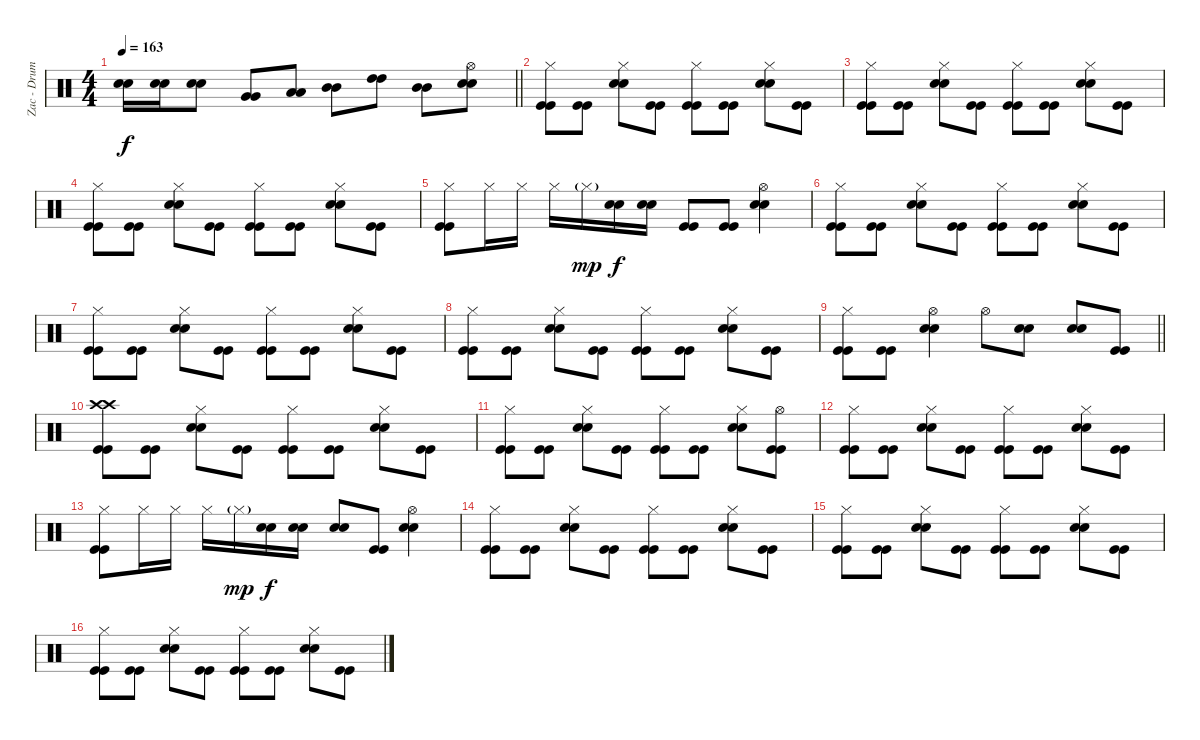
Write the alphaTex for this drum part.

\track ("Zac - Drums" "Zac - Drum") {instrument percussion}
\staff {score}
\articulation defaults
\ts (4 4)
\tempo 163
\clef neutral
\barLineRight lightlight
\ks c
("Electric Snare (hit)" "Electric Snare (hit)").16{dy f} ("Electric Snare (hit)" "Electric Snare (hit)").16 ("Electric Snare (hit)" "Electric Snare (hit)").8 ("Very Low Tom (hit)" "Very Low Tom (hit)").8 ("Low Tom (hit)" "Low Tom (hit)").8 ("Mid Tom (hit)" "Mid Tom (hit)").8 ("High Tom (hit)" "High Tom (hit)").8 ("Mid Tom (hit)" "Mid Tom (hit)").8 ("Hi-Hat (open)" "Electric Snare (hit)" "Electric Snare (hit)").8 |
("Hi-Hat (closed)" "Kick (hit)" "Kick (hit)").8 ("Kick (hit)" "Kick (hit)").8 ("Hi-Hat (closed)" "Electric Snare (hit)" "Electric Snare (hit)").8 ("Kick (hit)" "Kick (hit)").8 ("Hi-Hat (closed)" "Kick (hit)" "Kick (hit)").8 ("Kick (hit)" "Kick (hit)").8 ("Hi-Hat (closed)" "Electric Snare (hit)" "Electric Snare (hit)").8 ("Kick (hit)" "Kick (hit)").8 |
("Hi-Hat (closed)" "Kick (hit)" "Kick (hit)").8 ("Kick (hit)" "Kick (hit)").8 ("Hi-Hat (closed)" "Electric Snare (hit)" "Electric Snare (hit)").8 ("Kick (hit)" "Kick (hit)").8 ("Hi-Hat (closed)" "Kick (hit)" "Kick (hit)").8 ("Kick (hit)" "Kick (hit)").8 ("Hi-Hat (closed)" "Electric Snare (hit)" "Electric Snare (hit)").8 ("Kick (hit)" "Kick (hit)").8 |
("Hi-Hat (closed)" "Kick (hit)" "Kick (hit)").8 ("Kick (hit)" "Kick (hit)").8 ("Hi-Hat (closed)" "Electric Snare (hit)" "Electric Snare (hit)").8 ("Kick (hit)" "Kick (hit)").8 ("Hi-Hat (closed)" "Kick (hit)" "Kick (hit)").8 ("Kick (hit)" "Kick (hit)").8 ("Hi-Hat (closed)" "Electric Snare (hit)" "Electric Snare (hit)").8 ("Kick (hit)" "Kick (hit)").8 |
("Hi-Hat (closed)" "Kick (hit)" "Kick (hit)").8 "Hi-Hat (closed)".16 "Hi-Hat (closed)".16 "Hi-Hat (closed)".16 "Hi-Hat (closed)"{g}.16{dy mp} ("Electric Snare (hit)" "Electric Snare (hit)").16{dy f} ("Electric Snare (hit)" "Electric Snare (hit)").16 ("Kick (hit)" "Kick (hit)").8 ("Kick (hit)" "Kick (hit)").8 ("Hi-Hat (open)" "Electric Snare (hit)" "Electric Snare (hit)").4 |
("Hi-Hat (closed)" "Kick (hit)" "Kick (hit)").8 ("Kick (hit)" "Kick (hit)").8 ("Hi-Hat (closed)" "Electric Snare (hit)" "Electric Snare (hit)").8 ("Kick (hit)" "Kick (hit)").8 ("Hi-Hat (closed)" "Kick (hit)" "Kick (hit)").8 ("Kick (hit)" "Kick (hit)").8 ("Hi-Hat (closed)" "Electric Snare (hit)" "Electric Snare (hit)").8 ("Kick (hit)" "Kick (hit)").8 |
("Hi-Hat (closed)" "Kick (hit)" "Kick (hit)").8 ("Kick (hit)" "Kick (hit)").8 ("Hi-Hat (closed)" "Electric Snare (hit)" "Electric Snare (hit)").8 ("Kick (hit)" "Kick (hit)").8 ("Hi-Hat (closed)" "Kick (hit)" "Kick (hit)").8 ("Kick (hit)" "Kick (hit)").8 ("Hi-Hat (closed)" "Electric Snare (hit)" "Electric Snare (hit)").8 ("Kick (hit)" "Kick (hit)").8 |
("Hi-Hat (closed)" "Kick (hit)" "Kick (hit)").8 ("Kick (hit)" "Kick (hit)").8 ("Hi-Hat (closed)" "Electric Snare (hit)" "Electric Snare (hit)").8 ("Kick (hit)" "Kick (hit)").8 ("Hi-Hat (closed)" "Kick (hit)" "Kick (hit)").8 ("Kick (hit)" "Kick (hit)").8 ("Hi-Hat (closed)" "Electric Snare (hit)" "Electric Snare (hit)").8 ("Kick (hit)" "Kick (hit)").8 |
\barLineRight lightlight
("Hi-Hat (closed)" "Kick (hit)" "Kick (hit)").8 ("Kick (hit)" "Kick (hit)").8 ("Hi-Hat (open)" "Electric Snare (hit)" "Electric Snare (hit)").4 "Hi-Hat (open)".8 ("Electric Snare (hit)" "Electric Snare (hit)").8 ("Electric Snare (hit)" "Electric Snare (hit)").8 ("Kick (hit)" "Kick (hit)").8 |
("Crash high (hit)" "Crash high (hit)" "Kick (hit)" "Kick (hit)").8 ("Kick (hit)" "Kick (hit)").8 ("Hi-Hat (closed)" "Electric Snare (hit)" "Electric Snare (hit)").8 ("Kick (hit)" "Kick (hit)").8 ("Hi-Hat (closed)" "Kick (hit)" "Kick (hit)").8 ("Kick (hit)" "Kick (hit)").8 ("Hi-Hat (closed)" "Electric Snare (hit)" "Electric Snare (hit)").8 ("Kick (hit)" "Kick (hit)").8 |
("Hi-Hat (closed)" "Kick (hit)" "Kick (hit)").8 ("Kick (hit)" "Kick (hit)").8 ("Hi-Hat (closed)" "Electric Snare (hit)" "Electric Snare (hit)").8 ("Kick (hit)" "Kick (hit)").8 ("Hi-Hat (closed)" "Kick (hit)" "Kick (hit)").8 ("Kick (hit)" "Kick (hit)").8 ("Hi-Hat (closed)" "Electric Snare (hit)" "Electric Snare (hit)").8 ("Hi-Hat (open)" "Kick (hit)" "Kick (hit)").8 |
("Hi-Hat (closed)" "Kick (hit)" "Kick (hit)").8 ("Kick (hit)" "Kick (hit)").8 ("Hi-Hat (closed)" "Electric Snare (hit)" "Electric Snare (hit)").8 ("Kick (hit)" "Kick (hit)").8 ("Hi-Hat (closed)" "Kick (hit)" "Kick (hit)").8 ("Kick (hit)" "Kick (hit)").8 ("Hi-Hat (closed)" "Electric Snare (hit)" "Electric Snare (hit)").8 ("Kick (hit)" "Kick (hit)").8 |
("Hi-Hat (closed)" "Kick (hit)" "Kick (hit)").8 "Hi-Hat (closed)".16 "Hi-Hat (closed)".16 "Hi-Hat (closed)".16 "Hi-Hat (closed)"{g}.16{dy mp} ("Electric Snare (hit)" "Electric Snare (hit)").16{dy f} ("Electric Snare (hit)" "Electric Snare (hit)").16 ("Electric Snare (hit)" "Electric Snare (hit)").8 ("Kick (hit)" "Kick (hit)").8 ("Hi-Hat (open)" "Electric Snare (hit)" "Electric Snare (hit)").4 |
("Hi-Hat (closed)" "Kick (hit)" "Kick (hit)").8 ("Kick (hit)" "Kick (hit)").8 ("Hi-Hat (closed)" "Electric Snare (hit)" "Electric Snare (hit)").8 ("Kick (hit)" "Kick (hit)").8 ("Hi-Hat (closed)" "Kick (hit)" "Kick (hit)").8 ("Kick (hit)" "Kick (hit)").8 ("Hi-Hat (closed)" "Electric Snare (hit)" "Electric Snare (hit)").8 ("Kick (hit)" "Kick (hit)").8 |
("Hi-Hat (closed)" "Kick (hit)" "Kick (hit)").8 ("Kick (hit)" "Kick (hit)").8 ("Hi-Hat (closed)" "Electric Snare (hit)" "Electric Snare (hit)").8 ("Kick (hit)" "Kick (hit)").8 ("Hi-Hat (closed)" "Kick (hit)" "Kick (hit)").8 ("Kick (hit)" "Kick (hit)").8 ("Hi-Hat (closed)" "Electric Snare (hit)" "Electric Snare (hit)").8 ("Kick (hit)" "Kick (hit)").8 |
("Hi-Hat (closed)" "Kick (hit)" "Kick (hit)").8 ("Kick (hit)" "Kick (hit)").8 ("Hi-Hat (closed)" "Electric Snare (hit)" "Electric Snare (hit)").8 ("Kick (hit)" "Kick (hit)").8 ("Hi-Hat (closed)" "Kick (hit)" "Kick (hit)").8 ("Kick (hit)" "Kick (hit)").8 ("Hi-Hat (closed)" "Electric Snare (hit)" "Electric Snare (hit)").8 ("Kick (hit)" "Kick (hit)").8
